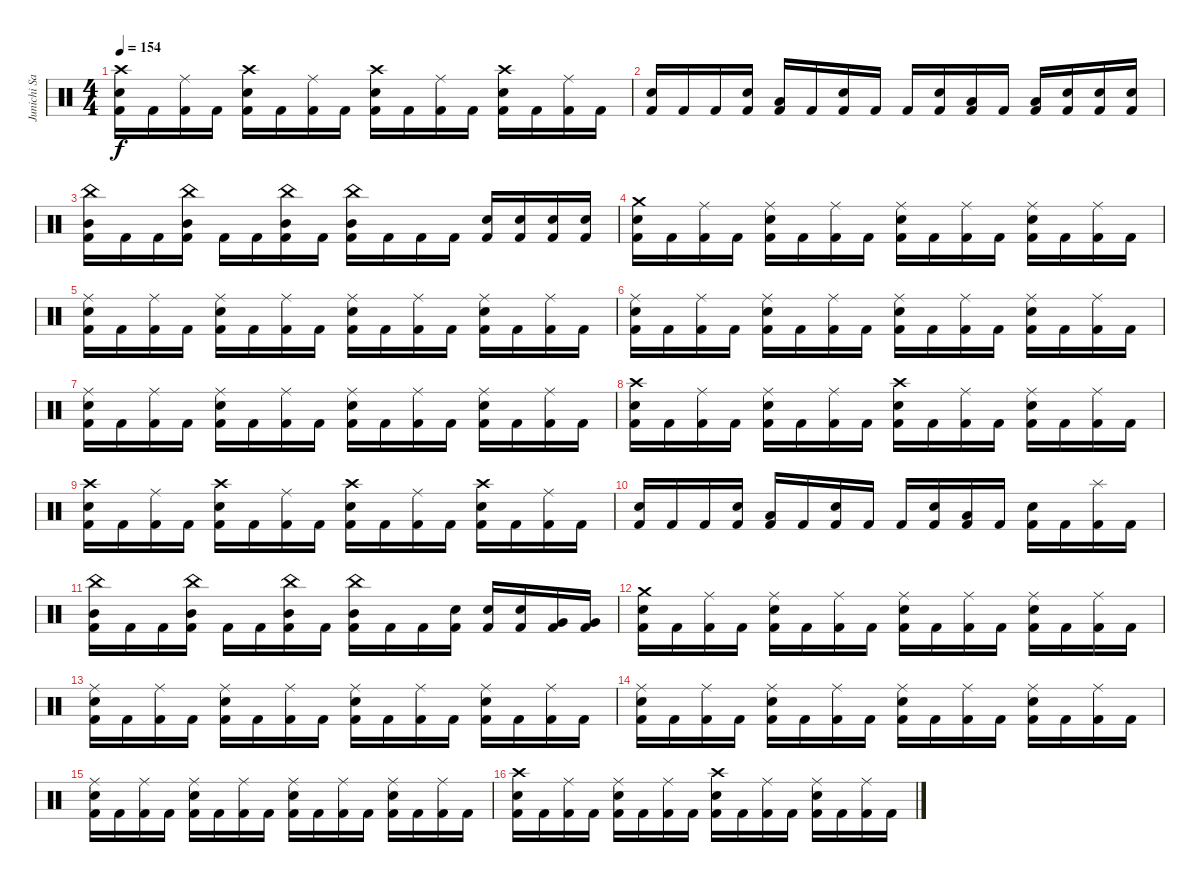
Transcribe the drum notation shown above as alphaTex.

\track ("Junichi Sato" "Junichi Sa") {instrument percussion}
\staff {score}
\articulation defaults
\ts (4 4)
\tempo 154
\clef neutral
\ks c
("Kick (hit) 2" "Crash high (hit)" "Electric Snare (hit)").16{dy f} "Kick (hit) 2".16 ("Kick (hit) 2" "Ride (middle)").16 "Kick (hit) 2".16 ("Kick (hit) 2" "Crash high (hit)" "Electric Snare (hit)").16 "Kick (hit) 2".16 ("Kick (hit) 2" "Ride (middle)").16 "Kick (hit) 2".16 ("Kick (hit) 2" "Crash high (hit)" "Electric Snare (hit)").16 "Kick (hit) 2".16 ("Kick (hit) 2" "Ride (middle)").16 "Kick (hit) 2".16 ("Kick (hit) 2" "Crash high (hit)" "Electric Snare (hit)").16 "Kick (hit) 2".16 ("Kick (hit) 2" "Ride (middle)").16 "Kick (hit) 2".16 |
("Kick (hit) 2" "Electric Snare (hit)").16 "Kick (hit) 2".16 "Kick (hit) 2".16 ("Kick (hit) 2" "Electric Snare (hit)").16 ("Kick (hit) 2" "Low Tom (hit)").16 "Kick (hit) 2".16 ("Kick (hit) 2" "Electric Snare (hit)").16 "Kick (hit) 2".16 "Kick (hit) 2".16 ("Kick (hit) 2" "Electric Snare (hit)").16 ("Kick (hit) 2" "Low Tom (hit)").16 "Kick (hit) 2".16 ("Kick (hit) 2" "Low Tom (hit)").16 ("Kick (hit) 2" "Electric Snare (hit)").16 ("Kick (hit) 2" "Electric Snare (hit)").16 ("Kick (hit) 2" "Electric Snare (hit)").16 |
("Kick (hit) 2" "Mid Tom (hit)" "China (hit)").16 "Kick (hit) 2".16 "Kick (hit) 2".16 ("Kick (hit) 2" "Mid Tom (hit)" "China (hit)").16 "Kick (hit) 2".16 "Kick (hit) 2".16 ("Kick (hit) 2" "Mid Tom (hit)" "China (hit)").16 "Kick (hit) 2".16 ("Kick (hit) 2" "Mid Tom (hit)" "China (hit)").16 "Kick (hit) 2".16 "Kick (hit) 2".16 "Kick (hit) 2".16 ("Kick (hit) 2" "Electric Snare (hit)").16 ("Kick (hit) 2" "Electric Snare (hit)").16 ("Kick (hit) 2" "Electric Snare (hit)").16 ("Kick (hit) 2" "Electric Snare (hit)").16 |
("Kick (hit) 2" "Crash medium (hit)" "Electric Snare (hit)").16 "Kick (hit) 2".16 ("Kick (hit) 2" "Ride (middle)").16 "Kick (hit) 2".16 ("Kick (hit) 2" "Ride (middle)" "Electric Snare (hit)").16 "Kick (hit) 2".16 ("Kick (hit) 2" "Ride (middle)").16 "Kick (hit) 2".16 ("Kick (hit) 2" "Ride (middle)" "Electric Snare (hit)").16 "Kick (hit) 2".16 ("Kick (hit) 2" "Ride (middle)").16 "Kick (hit) 2".16 ("Kick (hit) 2" "Ride (middle)" "Electric Snare (hit)").16 "Kick (hit) 2".16 ("Kick (hit) 2" "Ride (middle)").16 "Kick (hit) 2".16 |
("Kick (hit) 2" "Ride (middle)" "Electric Snare (hit)").16 "Kick (hit) 2".16 ("Kick (hit) 2" "Ride (middle)").16 "Kick (hit) 2".16 ("Kick (hit) 2" "Ride (middle)" "Electric Snare (hit)").16 "Kick (hit) 2".16 ("Kick (hit) 2" "Ride (middle)").16 "Kick (hit) 2".16 ("Kick (hit) 2" "Ride (middle)" "Electric Snare (hit)").16 "Kick (hit) 2".16 ("Kick (hit) 2" "Ride (middle)").16 "Kick (hit) 2".16 ("Kick (hit) 2" "Ride (middle)" "Electric Snare (hit)").16 "Kick (hit) 2".16 ("Kick (hit) 2" "Ride (middle)").16 "Kick (hit) 2".16 |
("Kick (hit) 2" "Ride (middle)" "Electric Snare (hit)").16 "Kick (hit) 2".16 ("Kick (hit) 2" "Ride (middle)").16 "Kick (hit) 2".16 ("Kick (hit) 2" "Ride (middle)" "Electric Snare (hit)").16 "Kick (hit) 2".16 ("Kick (hit) 2" "Ride (middle)").16 "Kick (hit) 2".16 ("Kick (hit) 2" "Ride (middle)" "Electric Snare (hit)").16 "Kick (hit) 2".16 ("Kick (hit) 2" "Ride (middle)").16 "Kick (hit) 2".16 ("Kick (hit) 2" "Ride (middle)" "Electric Snare (hit)").16 "Kick (hit) 2".16 ("Kick (hit) 2" "Ride (middle)").16 "Kick (hit) 2".16 |
("Kick (hit) 2" "Ride (middle)" "Electric Snare (hit)").16 "Kick (hit) 2".16 ("Kick (hit) 2" "Ride (middle)").16 "Kick (hit) 2".16 ("Kick (hit) 2" "Ride (middle)" "Electric Snare (hit)").16 "Kick (hit) 2".16 ("Kick (hit) 2" "Ride (middle)").16 "Kick (hit) 2".16 ("Kick (hit) 2" "Ride (middle)" "Electric Snare (hit)").16 "Kick (hit) 2".16 ("Kick (hit) 2" "Ride (middle)").16 "Kick (hit) 2".16 ("Kick (hit) 2" "Ride (middle)" "Electric Snare (hit)").16 "Kick (hit) 2".16 ("Kick (hit) 2" "Ride (middle)").16 "Kick (hit) 2".16 |
("Kick (hit) 2" "Crash high (hit)" "Electric Snare (hit)").16 "Kick (hit) 2".16 ("Kick (hit) 2" "Ride (middle)").16 "Kick (hit) 2".16 ("Kick (hit) 2" "Ride (middle)" "Electric Snare (hit)").16 "Kick (hit) 2".16 ("Kick (hit) 2" "Ride (middle)").16 "Kick (hit) 2".16 ("Kick (hit) 2" "Crash high (hit)" "Electric Snare (hit)").16 "Kick (hit) 2".16 ("Kick (hit) 2" "Ride (middle)").16 "Kick (hit) 2".16 ("Kick (hit) 2" "Ride (middle)" "Electric Snare (hit)").16 "Kick (hit) 2".16 ("Kick (hit) 2" "Ride (middle)").16 "Kick (hit) 2".16 |
("Kick (hit) 2" "Crash high (hit)" "Electric Snare (hit)").16 "Kick (hit) 2".16 ("Kick (hit) 2" "Ride (middle)").16 "Kick (hit) 2".16 ("Kick (hit) 2" "Crash high (hit)" "Electric Snare (hit)").16 "Kick (hit) 2".16 ("Kick (hit) 2" "Ride (middle)").16 "Kick (hit) 2".16 ("Kick (hit) 2" "Crash high (hit)" "Electric Snare (hit)").16 "Kick (hit) 2".16 ("Kick (hit) 2" "Ride (middle)").16 "Kick (hit) 2".16 ("Kick (hit) 2" "Crash high (hit)" "Electric Snare (hit)").16 "Kick (hit) 2".16 ("Kick (hit) 2" "Ride (middle)").16 "Kick (hit) 2".16 |
("Kick (hit) 2" "Electric Snare (hit)").16 "Kick (hit) 2".16 "Kick (hit) 2".16 ("Kick (hit) 2" "Electric Snare (hit)").16 ("Kick (hit) 2" "Low Tom (hit)").16 "Kick (hit) 2".16 ("Kick (hit) 2" "Electric Snare (hit)").16 "Kick (hit) 2".16 "Kick (hit) 2".16 ("Kick (hit) 2" "Electric Snare (hit)").16 ("Kick (hit) 2" "Low Tom (hit)").16 "Kick (hit) 2".16 ("Kick (hit) 2" "Electric Snare (hit)").16 "Kick (hit) 2".16 ("Kick (hit) 2" "Splash (hit)").16 "Kick (hit) 2".16 |
("Kick (hit) 2" "Mid Tom (hit)" "China (hit)").16 "Kick (hit) 2".16 "Kick (hit) 2".16 ("Kick (hit) 2" "Mid Tom (hit)" "China (hit)").16 "Kick (hit) 2".16 "Kick (hit) 2".16 ("Kick (hit) 2" "Mid Tom (hit)" "China (hit)").16 "Kick (hit) 2".16 ("Kick (hit) 2" "Mid Tom (hit)" "China (hit)").16 "Kick (hit) 2".16 "Kick (hit) 2".16 ("Kick (hit) 2" "Electric Snare (hit)").16 ("Kick (hit) 2" "Electric Snare (hit)").16 ("Kick (hit) 2" "Electric Snare (hit)").16 ("Kick (hit) 2" "Very Low Tom (hit)").16 ("Kick (hit) 2" "Very Low Tom (hit)").16 |
("Kick (hit) 2" "Crash medium (hit)" "Electric Snare (hit)").16 "Kick (hit) 2".16 ("Kick (hit) 2" "Ride (middle)").16 "Kick (hit) 2".16 ("Kick (hit) 2" "Ride (middle)" "Electric Snare (hit)").16 "Kick (hit) 2".16 ("Kick (hit) 2" "Ride (middle)").16 "Kick (hit) 2".16 ("Kick (hit) 2" "Ride (middle)" "Electric Snare (hit)").16 "Kick (hit) 2".16 ("Kick (hit) 2" "Ride (middle)").16 "Kick (hit) 2".16 ("Kick (hit) 2" "Ride (middle)" "Electric Snare (hit)").16 "Kick (hit) 2".16 ("Kick (hit) 2" "Ride (middle)").16 "Kick (hit) 2".16 |
("Kick (hit) 2" "Ride (middle)" "Electric Snare (hit)").16 "Kick (hit) 2".16 ("Kick (hit) 2" "Ride (middle)").16 "Kick (hit) 2".16 ("Kick (hit) 2" "Ride (middle)" "Electric Snare (hit)").16 "Kick (hit) 2".16 ("Kick (hit) 2" "Ride (middle)").16 "Kick (hit) 2".16 ("Kick (hit) 2" "Ride (middle)" "Electric Snare (hit)").16 "Kick (hit) 2".16 ("Kick (hit) 2" "Ride (middle)").16 "Kick (hit) 2".16 ("Kick (hit) 2" "Ride (middle)" "Electric Snare (hit)").16 "Kick (hit) 2".16 ("Kick (hit) 2" "Ride (middle)").16 "Kick (hit) 2".16 |
("Kick (hit) 2" "Ride (middle)" "Electric Snare (hit)").16 "Kick (hit) 2".16 ("Kick (hit) 2" "Ride (middle)").16 "Kick (hit) 2".16 ("Kick (hit) 2" "Ride (middle)" "Electric Snare (hit)").16 "Kick (hit) 2".16 ("Kick (hit) 2" "Ride (middle)").16 "Kick (hit) 2".16 ("Kick (hit) 2" "Ride (middle)" "Electric Snare (hit)").16 "Kick (hit) 2".16 ("Kick (hit) 2" "Ride (middle)").16 "Kick (hit) 2".16 ("Kick (hit) 2" "Ride (middle)" "Electric Snare (hit)").16 "Kick (hit) 2".16 ("Kick (hit) 2" "Ride (middle)").16 "Kick (hit) 2".16 |
("Kick (hit) 2" "Ride (middle)" "Electric Snare (hit)").16 "Kick (hit) 2".16 ("Kick (hit) 2" "Ride (middle)").16 "Kick (hit) 2".16 ("Kick (hit) 2" "Ride (middle)" "Electric Snare (hit)").16 "Kick (hit) 2".16 ("Kick (hit) 2" "Ride (middle)").16 "Kick (hit) 2".16 ("Kick (hit) 2" "Ride (middle)" "Electric Snare (hit)").16 "Kick (hit) 2".16 ("Kick (hit) 2" "Ride (middle)").16 "Kick (hit) 2".16 ("Kick (hit) 2" "Ride (middle)" "Electric Snare (hit)").16 "Kick (hit) 2".16 ("Kick (hit) 2" "Ride (middle)").16 "Kick (hit) 2".16 |
("Kick (hit) 2" "Crash high (hit)" "Electric Snare (hit)").16 "Kick (hit) 2".16 ("Kick (hit) 2" "Ride (middle)").16 "Kick (hit) 2".16 ("Kick (hit) 2" "Ride (middle)" "Electric Snare (hit)").16 "Kick (hit) 2".16 ("Kick (hit) 2" "Ride (middle)").16 "Kick (hit) 2".16 ("Kick (hit) 2" "Crash high (hit)" "Electric Snare (hit)").16 "Kick (hit) 2".16 ("Kick (hit) 2" "Ride (middle)").16 "Kick (hit) 2".16 ("Kick (hit) 2" "Ride (middle)" "Electric Snare (hit)").16 "Kick (hit) 2".16 ("Kick (hit) 2" "Ride (middle)").16 "Kick (hit) 2".16
